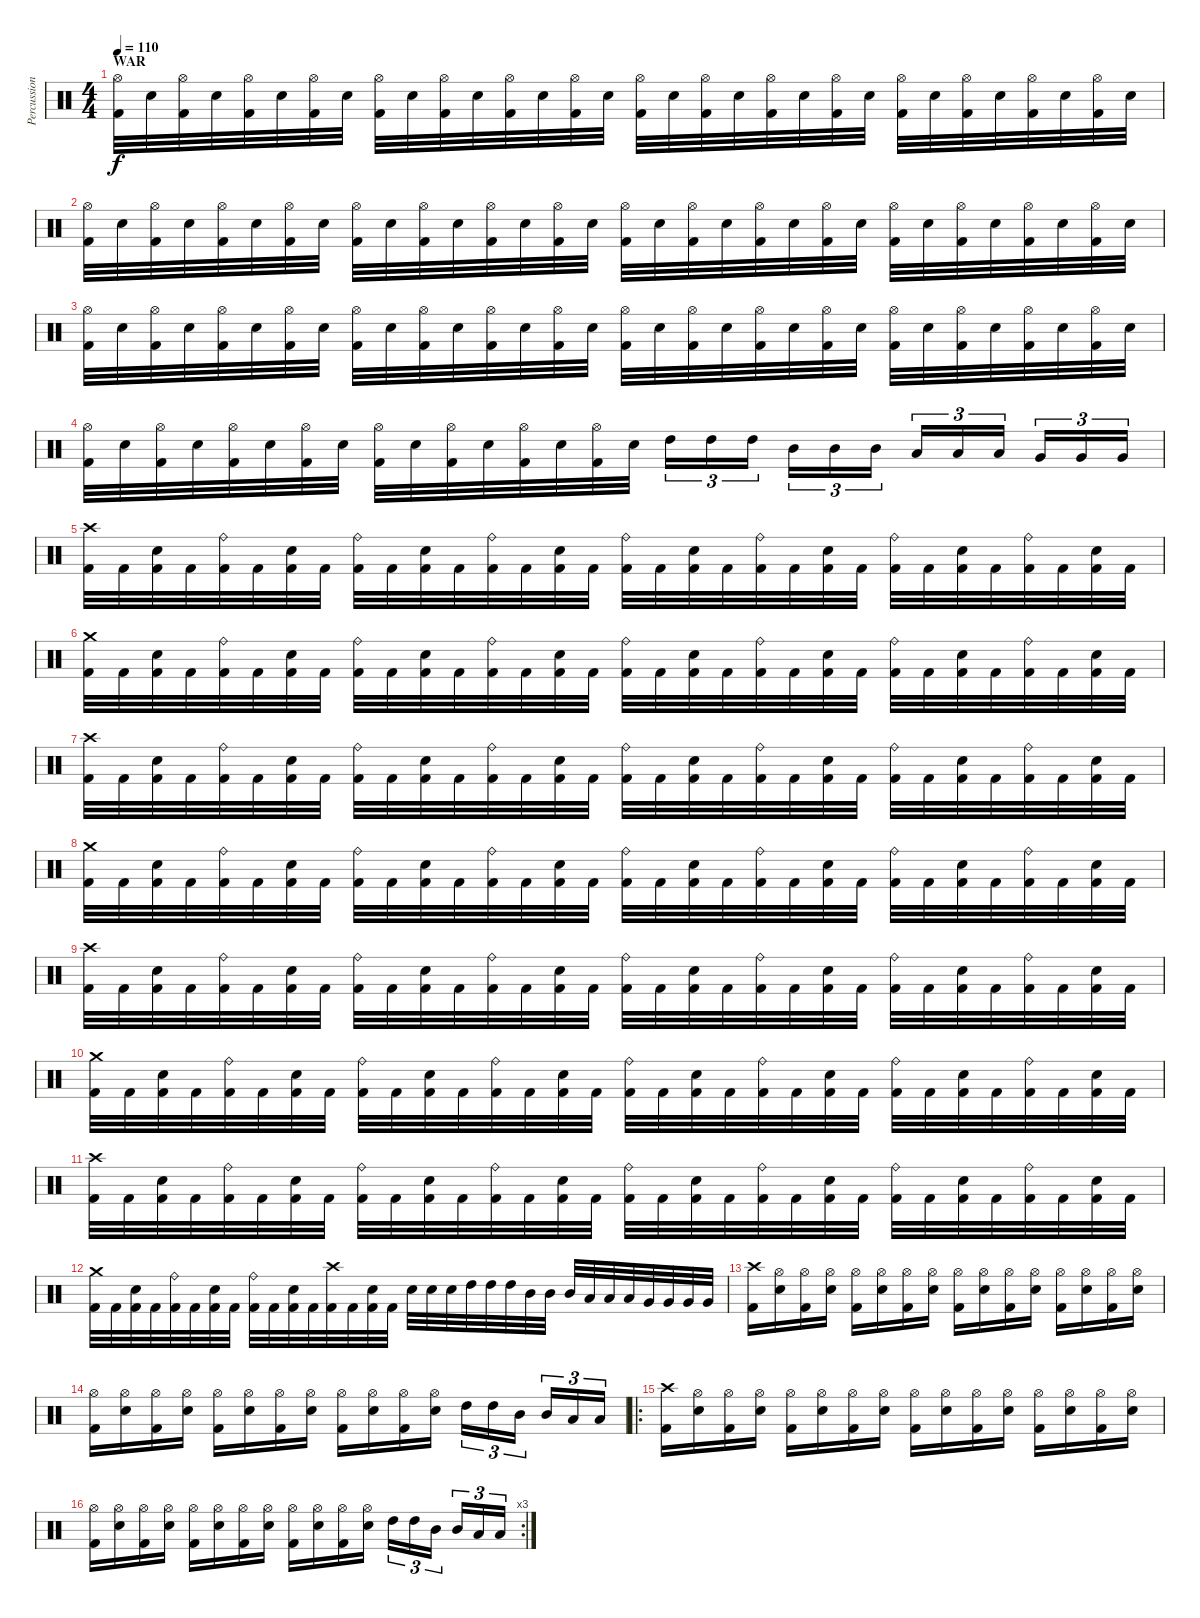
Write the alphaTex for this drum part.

\track ("Percussion" "Percussion") {instrument percussion}
\staff {score}
\articulation defaults
\ts (4 4)
\section ("" "WAR")
\tempo 110
\clef neutral
\ks c
("Hi-Hat (open)" "Kick (hit) 2").32{dy f} "Electric Snare (hit)".32 ("Hi-Hat (open)" "Kick (hit) 2").32 "Electric Snare (hit)".32 ("Hi-Hat (open)" "Kick (hit) 2").32 "Electric Snare (hit)".32 ("Hi-Hat (open)" "Kick (hit) 2").32 "Electric Snare (hit)".32 ("Hi-Hat (open)" "Kick (hit) 2").32 "Electric Snare (hit)".32 ("Hi-Hat (open)" "Kick (hit) 2").32 "Electric Snare (hit)".32 ("Hi-Hat (open)" "Kick (hit) 2").32 "Electric Snare (hit)".32 ("Hi-Hat (open)" "Kick (hit) 2").32 "Electric Snare (hit)".32 ("Hi-Hat (open)" "Kick (hit) 2").32 "Electric Snare (hit)".32 ("Hi-Hat (open)" "Kick (hit) 2").32 "Electric Snare (hit)".32 ("Hi-Hat (open)" "Kick (hit) 2").32 "Electric Snare (hit)".32 ("Hi-Hat (open)" "Kick (hit) 2").32 "Electric Snare (hit)".32 ("Hi-Hat (open)" "Kick (hit) 2").32 "Electric Snare (hit)".32 ("Hi-Hat (open)" "Kick (hit) 2").32 "Electric Snare (hit)".32 ("Hi-Hat (open)" "Kick (hit) 2").32 "Electric Snare (hit)".32 ("Hi-Hat (open)" "Kick (hit) 2").32 "Electric Snare (hit)".32 |
("Hi-Hat (open)" "Kick (hit) 2").32 "Electric Snare (hit)".32 ("Hi-Hat (open)" "Kick (hit) 2").32 "Electric Snare (hit)".32 ("Hi-Hat (open)" "Kick (hit) 2").32 "Electric Snare (hit)".32 ("Hi-Hat (open)" "Kick (hit) 2").32 "Electric Snare (hit)".32 ("Hi-Hat (open)" "Kick (hit) 2").32 "Electric Snare (hit)".32 ("Hi-Hat (open)" "Kick (hit) 2").32 "Electric Snare (hit)".32 ("Hi-Hat (open)" "Kick (hit) 2").32 "Electric Snare (hit)".32 ("Hi-Hat (open)" "Kick (hit) 2").32 "Electric Snare (hit)".32 ("Hi-Hat (open)" "Kick (hit) 2").32 "Electric Snare (hit)".32 ("Hi-Hat (open)" "Kick (hit) 2").32 "Electric Snare (hit)".32 ("Hi-Hat (open)" "Kick (hit) 2").32 "Electric Snare (hit)".32 ("Hi-Hat (open)" "Kick (hit) 2").32 "Electric Snare (hit)".32 ("Hi-Hat (open)" "Kick (hit) 2").32 "Electric Snare (hit)".32 ("Hi-Hat (open)" "Kick (hit) 2").32 "Electric Snare (hit)".32 ("Hi-Hat (open)" "Kick (hit) 2").32 "Electric Snare (hit)".32 ("Hi-Hat (open)" "Kick (hit) 2").32 "Electric Snare (hit)".32 |
("Hi-Hat (open)" "Kick (hit) 2").32 "Electric Snare (hit)".32 ("Hi-Hat (open)" "Kick (hit) 2").32 "Electric Snare (hit)".32 ("Hi-Hat (open)" "Kick (hit) 2").32 "Electric Snare (hit)".32 ("Hi-Hat (open)" "Kick (hit) 2").32 "Electric Snare (hit)".32 ("Hi-Hat (open)" "Kick (hit) 2").32 "Electric Snare (hit)".32 ("Hi-Hat (open)" "Kick (hit) 2").32 "Electric Snare (hit)".32 ("Hi-Hat (open)" "Kick (hit) 2").32 "Electric Snare (hit)".32 ("Hi-Hat (open)" "Kick (hit) 2").32 "Electric Snare (hit)".32 ("Hi-Hat (open)" "Kick (hit) 2").32 "Electric Snare (hit)".32 ("Hi-Hat (open)" "Kick (hit) 2").32 "Electric Snare (hit)".32 ("Hi-Hat (open)" "Kick (hit) 2").32 "Electric Snare (hit)".32 ("Hi-Hat (open)" "Kick (hit) 2").32 "Electric Snare (hit)".32 ("Hi-Hat (open)" "Kick (hit) 2").32 "Electric Snare (hit)".32 ("Hi-Hat (open)" "Kick (hit) 2").32 "Electric Snare (hit)".32 ("Hi-Hat (open)" "Kick (hit) 2").32 "Electric Snare (hit)".32 ("Hi-Hat (open)" "Kick (hit) 2").32 "Electric Snare (hit)".32 |
("Hi-Hat (open)" "Kick (hit) 2").32 "Electric Snare (hit)".32 ("Hi-Hat (open)" "Kick (hit) 2").32 "Electric Snare (hit)".32 ("Hi-Hat (open)" "Kick (hit) 2").32 "Electric Snare (hit)".32 ("Hi-Hat (open)" "Kick (hit) 2").32 "Electric Snare (hit)".32 ("Hi-Hat (open)" "Kick (hit) 2").32 "Electric Snare (hit)".32 ("Hi-Hat (open)" "Kick (hit) 2").32 "Electric Snare (hit)".32 ("Hi-Hat (open)" "Kick (hit) 2").32 "Electric Snare (hit)".32 ("Hi-Hat (open)" "Kick (hit) 2").32 "Electric Snare (hit)".32 "High Tom (hit)".16{tu (3 2)} "High Tom (hit)".16{tu (3 2)} "High Tom (hit)".16{tu (3 2)} "Mid Tom (hit)".16{tu (3 2)} "Mid Tom (hit)".16{tu (3 2)} "Mid Tom (hit)".16{tu (3 2)} "Low Tom (hit)".16{tu (3 2)} "Low Tom (hit)".16{tu (3 2)} "Low Tom (hit)".16{tu (3 2)} "Very Low Tom (hit)".16{tu (3 2)} "Very Low Tom (hit)".16{tu (3 2)} "Very Low Tom (hit)".16{tu (3 2)} |
("Crash high (hit)" "Kick (hit) 2").32 "Kick (hit) 2".32 ("Electric Snare (hit)" "Kick (hit) 2").32 "Kick (hit) 2".32 ("Ride (bell)" "Kick (hit) 2").32 "Kick (hit) 2".32 ("Electric Snare (hit)" "Kick (hit) 2").32 "Kick (hit) 2".32 ("Ride (bell)" "Kick (hit) 2").32 "Kick (hit) 2".32 ("Electric Snare (hit)" "Kick (hit) 2").32 "Kick (hit) 2".32 ("Ride (bell)" "Kick (hit) 2").32 "Kick (hit) 2".32 ("Electric Snare (hit)" "Kick (hit) 2").32 "Kick (hit) 2".32 ("Ride (bell)" "Kick (hit) 2").32 "Kick (hit) 2".32 ("Electric Snare (hit)" "Kick (hit) 2").32 "Kick (hit) 2".32 ("Ride (bell)" "Kick (hit) 2").32 "Kick (hit) 2".32 ("Electric Snare (hit)" "Kick (hit) 2").32 "Kick (hit) 2".32 ("Ride (bell)" "Kick (hit) 2").32 "Kick (hit) 2".32 ("Electric Snare (hit)" "Kick (hit) 2").32 "Kick (hit) 2".32 ("Ride (bell)" "Kick (hit) 2").32 "Kick (hit) 2".32 ("Electric Snare (hit)" "Kick (hit) 2").32 "Kick (hit) 2".32 |
("Crash medium (hit)" "Kick (hit) 2").32 "Kick (hit) 2".32 ("Electric Snare (hit)" "Kick (hit) 2").32 "Kick (hit) 2".32 ("Ride (bell)" "Kick (hit) 2").32 "Kick (hit) 2".32 ("Electric Snare (hit)" "Kick (hit) 2").32 "Kick (hit) 2".32 ("Ride (bell)" "Kick (hit) 2").32 "Kick (hit) 2".32 ("Electric Snare (hit)" "Kick (hit) 2").32 "Kick (hit) 2".32 ("Ride (bell)" "Kick (hit) 2").32 "Kick (hit) 2".32 ("Electric Snare (hit)" "Kick (hit) 2").32 "Kick (hit) 2".32 ("Ride (bell)" "Kick (hit) 2").32 "Kick (hit) 2".32 ("Electric Snare (hit)" "Kick (hit) 2").32 "Kick (hit) 2".32 ("Ride (bell)" "Kick (hit) 2").32 "Kick (hit) 2".32 ("Electric Snare (hit)" "Kick (hit) 2").32 "Kick (hit) 2".32 ("Ride (bell)" "Kick (hit) 2").32 "Kick (hit) 2".32 ("Electric Snare (hit)" "Kick (hit) 2").32 "Kick (hit) 2".32 ("Ride (bell)" "Kick (hit) 2").32 "Kick (hit) 2".32 ("Electric Snare (hit)" "Kick (hit) 2").32 "Kick (hit) 2".32 |
("Crash high (hit)" "Kick (hit) 2").32 "Kick (hit) 2".32 ("Electric Snare (hit)" "Kick (hit) 2").32 "Kick (hit) 2".32 ("Ride (bell)" "Kick (hit) 2").32 "Kick (hit) 2".32 ("Electric Snare (hit)" "Kick (hit) 2").32 "Kick (hit) 2".32 ("Ride (bell)" "Kick (hit) 2").32 "Kick (hit) 2".32 ("Electric Snare (hit)" "Kick (hit) 2").32 "Kick (hit) 2".32 ("Ride (bell)" "Kick (hit) 2").32 "Kick (hit) 2".32 ("Electric Snare (hit)" "Kick (hit) 2").32 "Kick (hit) 2".32 ("Ride (bell)" "Kick (hit) 2").32 "Kick (hit) 2".32 ("Electric Snare (hit)" "Kick (hit) 2").32 "Kick (hit) 2".32 ("Ride (bell)" "Kick (hit) 2").32 "Kick (hit) 2".32 ("Electric Snare (hit)" "Kick (hit) 2").32 "Kick (hit) 2".32 ("Ride (bell)" "Kick (hit) 2").32 "Kick (hit) 2".32 ("Electric Snare (hit)" "Kick (hit) 2").32 "Kick (hit) 2".32 ("Ride (bell)" "Kick (hit) 2").32 "Kick (hit) 2".32 ("Electric Snare (hit)" "Kick (hit) 2").32 "Kick (hit) 2".32 |
("Crash medium (hit)" "Kick (hit) 2").32 "Kick (hit) 2".32 ("Electric Snare (hit)" "Kick (hit) 2").32 "Kick (hit) 2".32 ("Ride (bell)" "Kick (hit) 2").32 "Kick (hit) 2".32 ("Electric Snare (hit)" "Kick (hit) 2").32 "Kick (hit) 2".32 ("Ride (bell)" "Kick (hit) 2").32 "Kick (hit) 2".32 ("Electric Snare (hit)" "Kick (hit) 2").32 "Kick (hit) 2".32 ("Ride (bell)" "Kick (hit) 2").32 "Kick (hit) 2".32 ("Electric Snare (hit)" "Kick (hit) 2").32 "Kick (hit) 2".32 ("Ride (bell)" "Kick (hit) 2").32 "Kick (hit) 2".32 ("Electric Snare (hit)" "Kick (hit) 2").32 "Kick (hit) 2".32 ("Ride (bell)" "Kick (hit) 2").32 "Kick (hit) 2".32 ("Electric Snare (hit)" "Kick (hit) 2").32 "Kick (hit) 2".32 ("Ride (bell)" "Kick (hit) 2").32 "Kick (hit) 2".32 ("Electric Snare (hit)" "Kick (hit) 2").32 "Kick (hit) 2".32 ("Ride (bell)" "Kick (hit) 2").32 "Kick (hit) 2".32 ("Electric Snare (hit)" "Kick (hit) 2").32 "Kick (hit) 2".32 |
("Crash high (hit)" "Kick (hit) 2").32 "Kick (hit) 2".32 ("Electric Snare (hit)" "Kick (hit) 2").32 "Kick (hit) 2".32 ("Ride (bell)" "Kick (hit) 2").32 "Kick (hit) 2".32 ("Electric Snare (hit)" "Kick (hit) 2").32 "Kick (hit) 2".32 ("Ride (bell)" "Kick (hit) 2").32 "Kick (hit) 2".32 ("Electric Snare (hit)" "Kick (hit) 2").32 "Kick (hit) 2".32 ("Ride (bell)" "Kick (hit) 2").32 "Kick (hit) 2".32 ("Electric Snare (hit)" "Kick (hit) 2").32 "Kick (hit) 2".32 ("Ride (bell)" "Kick (hit) 2").32 "Kick (hit) 2".32 ("Electric Snare (hit)" "Kick (hit) 2").32 "Kick (hit) 2".32 ("Ride (bell)" "Kick (hit) 2").32 "Kick (hit) 2".32 ("Electric Snare (hit)" "Kick (hit) 2").32 "Kick (hit) 2".32 ("Ride (bell)" "Kick (hit) 2").32 "Kick (hit) 2".32 ("Electric Snare (hit)" "Kick (hit) 2").32 "Kick (hit) 2".32 ("Ride (bell)" "Kick (hit) 2").32 "Kick (hit) 2".32 ("Electric Snare (hit)" "Kick (hit) 2").32 "Kick (hit) 2".32 |
("Crash medium (hit)" "Kick (hit) 2").32 "Kick (hit) 2".32 ("Electric Snare (hit)" "Kick (hit) 2").32 "Kick (hit) 2".32 ("Ride (bell)" "Kick (hit) 2").32 "Kick (hit) 2".32 ("Electric Snare (hit)" "Kick (hit) 2").32 "Kick (hit) 2".32 ("Ride (bell)" "Kick (hit) 2").32 "Kick (hit) 2".32 ("Electric Snare (hit)" "Kick (hit) 2").32 "Kick (hit) 2".32 ("Ride (bell)" "Kick (hit) 2").32 "Kick (hit) 2".32 ("Electric Snare (hit)" "Kick (hit) 2").32 "Kick (hit) 2".32 ("Ride (bell)" "Kick (hit) 2").32 "Kick (hit) 2".32 ("Electric Snare (hit)" "Kick (hit) 2").32 "Kick (hit) 2".32 ("Ride (bell)" "Kick (hit) 2").32 "Kick (hit) 2".32 ("Electric Snare (hit)" "Kick (hit) 2").32 "Kick (hit) 2".32 ("Ride (bell)" "Kick (hit) 2").32 "Kick (hit) 2".32 ("Electric Snare (hit)" "Kick (hit) 2").32 "Kick (hit) 2".32 ("Ride (bell)" "Kick (hit) 2").32 "Kick (hit) 2".32 ("Electric Snare (hit)" "Kick (hit) 2").32 "Kick (hit) 2".32 |
("Crash high (hit)" "Kick (hit) 2").32 "Kick (hit) 2".32 ("Electric Snare (hit)" "Kick (hit) 2").32 "Kick (hit) 2".32 ("Ride (bell)" "Kick (hit) 2").32 "Kick (hit) 2".32 ("Electric Snare (hit)" "Kick (hit) 2").32 "Kick (hit) 2".32 ("Ride (bell)" "Kick (hit) 2").32 "Kick (hit) 2".32 ("Electric Snare (hit)" "Kick (hit) 2").32 "Kick (hit) 2".32 ("Ride (bell)" "Kick (hit) 2").32 "Kick (hit) 2".32 ("Electric Snare (hit)" "Kick (hit) 2").32 "Kick (hit) 2".32 ("Ride (bell)" "Kick (hit) 2").32 "Kick (hit) 2".32 ("Electric Snare (hit)" "Kick (hit) 2").32 "Kick (hit) 2".32 ("Ride (bell)" "Kick (hit) 2").32 "Kick (hit) 2".32 ("Electric Snare (hit)" "Kick (hit) 2").32 "Kick (hit) 2".32 ("Ride (bell)" "Kick (hit) 2").32 "Kick (hit) 2".32 ("Electric Snare (hit)" "Kick (hit) 2").32 "Kick (hit) 2".32 ("Ride (bell)" "Kick (hit) 2").32 "Kick (hit) 2".32 ("Electric Snare (hit)" "Kick (hit) 2").32 "Kick (hit) 2".32 |
("Crash medium (hit)" "Kick (hit) 2").32 "Kick (hit) 2".32 ("Electric Snare (hit)" "Kick (hit) 2").32 "Kick (hit) 2".32 ("Ride (bell)" "Kick (hit) 2").32 "Kick (hit) 2".32 ("Electric Snare (hit)" "Kick (hit) 2").32 "Kick (hit) 2".32 ("Ride (bell)" "Kick (hit) 2").32 "Kick (hit) 2".32 ("Electric Snare (hit)" "Kick (hit) 2").32 "Kick (hit) 2".32 ("Crash high (hit)" "Kick (hit) 2").32 "Kick (hit) 2".32 ("Electric Snare (hit)" "Kick (hit) 2").32 "Kick (hit) 2".32 "Electric Snare (hit)".32 "Electric Snare (hit)".32 "Electric Snare (hit)".32 "High Tom (hit)".32 "High Tom (hit)".32 "High Tom (hit)".32 "Mid Tom (hit)".32 "Mid Tom (hit)".32 "Mid Tom (hit)".32 "Low Tom (hit)".32 "Low Tom (hit)".32 "Low Tom (hit)".32 "Very Low Tom (hit)".32 "Very Low Tom (hit)".32 "Very Low Tom (hit)".32 "Very Low Tom (hit)".32 |
("Crash high (hit)" "Kick (hit) 2").16 ("Hi-Hat (open)" "Electric Snare (hit)").16 ("Hi-Hat (open)" "Kick (hit) 2").16 ("Hi-Hat (open)" "Electric Snare (hit)").16 ("Hi-Hat (open)" "Kick (hit) 2").16 ("Hi-Hat (open)" "Electric Snare (hit)").16 ("Hi-Hat (open)" "Kick (hit) 2").16 ("Hi-Hat (open)" "Electric Snare (hit)").16 ("Hi-Hat (open)" "Kick (hit) 2").16 ("Hi-Hat (open)" "Electric Snare (hit)").16 ("Hi-Hat (open)" "Kick (hit) 2").16 ("Hi-Hat (open)" "Electric Snare (hit)").16 ("Hi-Hat (open)" "Kick (hit) 2").16 ("Hi-Hat (open)" "Electric Snare (hit)").16 ("Hi-Hat (open)" "Kick (hit) 2").16 ("Hi-Hat (open)" "Electric Snare (hit)").16 |
("Hi-Hat (open)" "Kick (hit) 2").16 ("Hi-Hat (open)" "Electric Snare (hit)").16 ("Hi-Hat (open)" "Kick (hit) 2").16 ("Hi-Hat (open)" "Electric Snare (hit)").16 ("Hi-Hat (open)" "Kick (hit) 2").16 ("Hi-Hat (open)" "Electric Snare (hit)").16 ("Hi-Hat (open)" "Kick (hit) 2").16 ("Hi-Hat (open)" "Electric Snare (hit)").16 ("Hi-Hat (open)" "Kick (hit) 2").16 ("Hi-Hat (open)" "Electric Snare (hit)").16 ("Hi-Hat (open)" "Kick (hit) 2").16 ("Hi-Hat (open)" "Electric Snare (hit)").16 "High Tom (hit)".16{tu (3 2)} "High Tom (hit)".16{tu (3 2)} "Mid Tom (hit)".16{tu (3 2)} "Mid Tom (hit)".16{tu (3 2)} "Low Tom (hit)".16{tu (3 2)} "Low Tom (hit)".16{tu (3 2)} |
\ro
("Crash high (hit)" "Kick (hit) 2").16 ("Hi-Hat (open)" "Electric Snare (hit)").16 ("Hi-Hat (open)" "Kick (hit) 2").16 ("Hi-Hat (open)" "Electric Snare (hit)").16 ("Hi-Hat (open)" "Kick (hit) 2").16 ("Hi-Hat (open)" "Electric Snare (hit)").16 ("Hi-Hat (open)" "Kick (hit) 2").16 ("Hi-Hat (open)" "Electric Snare (hit)").16 ("Hi-Hat (open)" "Kick (hit) 2").16 ("Hi-Hat (open)" "Electric Snare (hit)").16 ("Hi-Hat (open)" "Kick (hit) 2").16 ("Hi-Hat (open)" "Electric Snare (hit)").16 ("Hi-Hat (open)" "Kick (hit) 2").16 ("Hi-Hat (open)" "Electric Snare (hit)").16 ("Hi-Hat (open)" "Kick (hit) 2").16 ("Hi-Hat (open)" "Electric Snare (hit)").16 |
\rc 3
("Hi-Hat (open)" "Kick (hit) 2").16 ("Hi-Hat (open)" "Electric Snare (hit)").16 ("Hi-Hat (open)" "Kick (hit) 2").16 ("Hi-Hat (open)" "Electric Snare (hit)").16 ("Hi-Hat (open)" "Kick (hit) 2").16 ("Hi-Hat (open)" "Electric Snare (hit)").16 ("Hi-Hat (open)" "Kick (hit) 2").16 ("Hi-Hat (open)" "Electric Snare (hit)").16 ("Hi-Hat (open)" "Kick (hit) 2").16 ("Hi-Hat (open)" "Electric Snare (hit)").16 ("Hi-Hat (open)" "Kick (hit) 2").16 ("Hi-Hat (open)" "Electric Snare (hit)").16 "High Tom (hit)".16{tu (3 2)} "High Tom (hit)".16{tu (3 2)} "Mid Tom (hit)".16{tu (3 2)} "Mid Tom (hit)".16{tu (3 2)} "Low Tom (hit)".16{tu (3 2)} "Low Tom (hit)".16{tu (3 2)}
